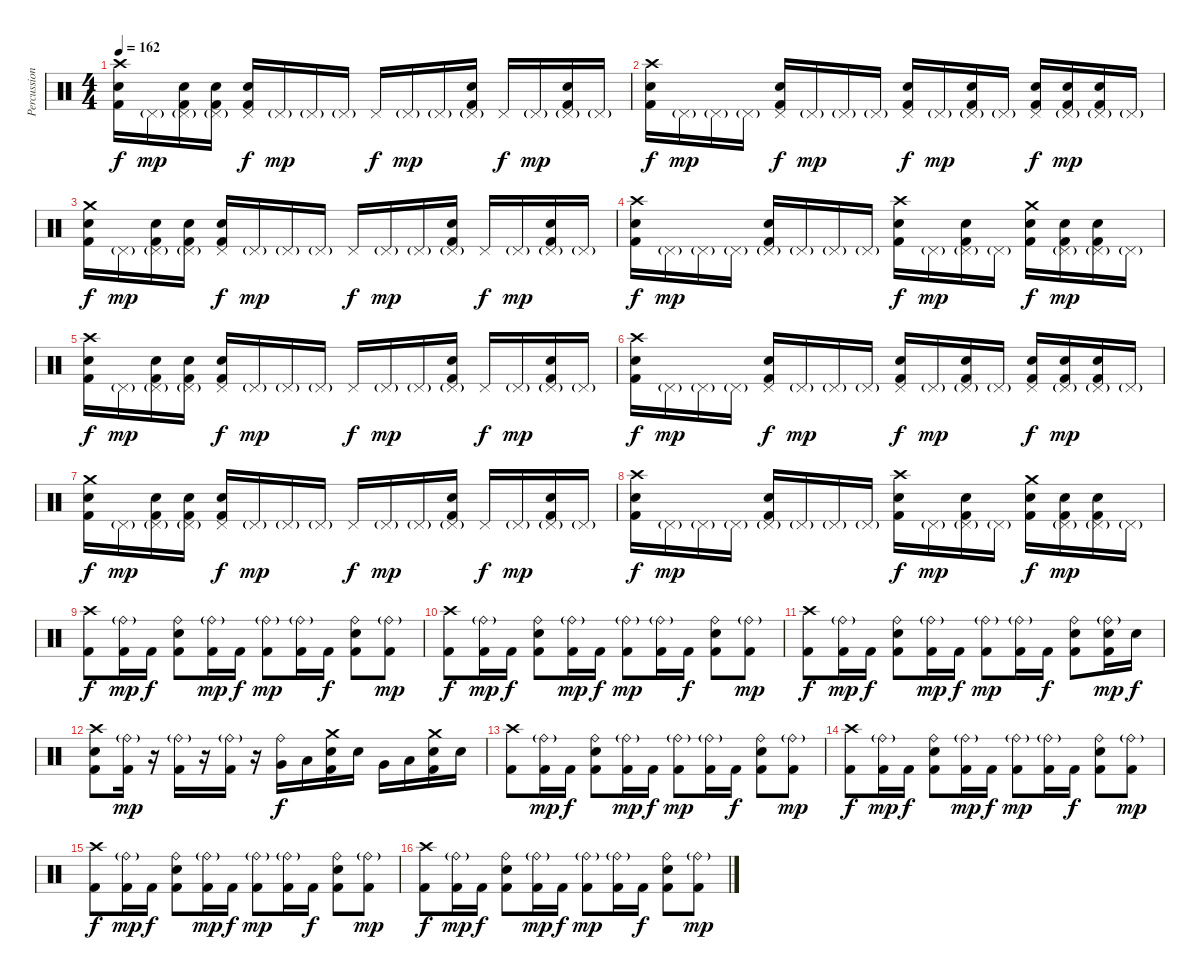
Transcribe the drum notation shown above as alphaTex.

\track ("Percussion" "Percussion") {instrument percussion}
\staff {score}
\articulation defaults
\ts (4 4)
\tempo 162
\clef neutral
\ks c
("Crash high (hit)" "Electric Snare (hit)" "Kick (hit) 2").16{dy f} "Pedal Hi-Hat (hit)"{g}.16{dy mp} ("Pedal Hi-Hat (hit)"{g} "Electric Snare (hit)" "Kick (hit) 2").16 ("Pedal Hi-Hat (hit)"{g} "Electric Snare (hit)" "Kick (hit) 2").16 ("Pedal Hi-Hat (hit)" "Electric Snare (hit)" "Kick (hit) 2").16{dy f} "Pedal Hi-Hat (hit)"{g}.16{dy mp} "Pedal Hi-Hat (hit)"{g}.16 "Pedal Hi-Hat (hit)"{g}.16 "Pedal Hi-Hat (hit)".16{dy f} "Pedal Hi-Hat (hit)"{g}.16{dy mp} "Pedal Hi-Hat (hit)"{g}.16 ("Pedal Hi-Hat (hit)"{g} "Electric Snare (hit)" "Kick (hit) 2").16 "Pedal Hi-Hat (hit)".16{dy f} "Pedal Hi-Hat (hit)"{g}.16{dy mp} ("Pedal Hi-Hat (hit)"{g} "Electric Snare (hit)" "Kick (hit) 2").16 "Pedal Hi-Hat (hit)"{g}.16 |
("Crash high (hit)" "Electric Snare (hit)" "Kick (hit) 2").16{dy f} "Pedal Hi-Hat (hit)"{g}.16{dy mp} "Pedal Hi-Hat (hit)"{g}.16 "Pedal Hi-Hat (hit)"{g}.16 ("Pedal Hi-Hat (hit)" "Electric Snare (hit)" "Kick (hit) 2").16{dy f} "Pedal Hi-Hat (hit)"{g}.16{dy mp} "Pedal Hi-Hat (hit)"{g}.16 "Pedal Hi-Hat (hit)"{g}.16 ("Pedal Hi-Hat (hit)" "Electric Snare (hit)" "Kick (hit) 2").16{dy f} "Pedal Hi-Hat (hit)"{g}.16{dy mp} ("Pedal Hi-Hat (hit)"{g} "Electric Snare (hit)" "Kick (hit) 2").16 "Pedal Hi-Hat (hit)"{g}.16 ("Pedal Hi-Hat (hit)" "Electric Snare (hit)" "Kick (hit) 2").16{dy f} ("Pedal Hi-Hat (hit)"{g} "Electric Snare (hit)" "Kick (hit) 2").16{dy mp} ("Pedal Hi-Hat (hit)"{g} "Electric Snare (hit)" "Kick (hit) 2").16 "Pedal Hi-Hat (hit)"{g}.16 |
("Crash medium (hit)" "Electric Snare (hit)" "Kick (hit) 2").16{dy f} "Pedal Hi-Hat (hit)"{g}.16{dy mp} ("Pedal Hi-Hat (hit)"{g} "Electric Snare (hit)" "Kick (hit) 2").16 ("Pedal Hi-Hat (hit)"{g} "Electric Snare (hit)" "Kick (hit) 2").16 ("Pedal Hi-Hat (hit)" "Electric Snare (hit)" "Kick (hit) 2").16{dy f} "Pedal Hi-Hat (hit)"{g}.16{dy mp} "Pedal Hi-Hat (hit)"{g}.16 "Pedal Hi-Hat (hit)"{g}.16 "Pedal Hi-Hat (hit)".16{dy f} "Pedal Hi-Hat (hit)"{g}.16{dy mp} "Pedal Hi-Hat (hit)"{g}.16 ("Pedal Hi-Hat (hit)"{g} "Electric Snare (hit)" "Kick (hit) 2").16 "Pedal Hi-Hat (hit)".16{dy f} "Pedal Hi-Hat (hit)"{g}.16{dy mp} ("Pedal Hi-Hat (hit)"{g} "Electric Snare (hit)" "Kick (hit) 2").16 "Pedal Hi-Hat (hit)"{g}.16 |
("Crash high (hit)" "Electric Snare (hit)" "Kick (hit) 2").16{dy f} "Pedal Hi-Hat (hit)"{g}.16{dy mp} "Pedal Hi-Hat (hit)"{g}.16 "Pedal Hi-Hat (hit)"{g}.16 ("Pedal Hi-Hat (hit)"{g} "Electric Snare (hit)" "Kick (hit) 2").16 "Pedal Hi-Hat (hit)"{g}.16 "Pedal Hi-Hat (hit)"{g}.16 "Pedal Hi-Hat (hit)"{g}.16 ("Crash high (hit)" "Electric Snare (hit)" "Kick (hit) 2").16{dy f} "Pedal Hi-Hat (hit)"{g}.16{dy mp} ("Pedal Hi-Hat (hit)"{g} "Electric Snare (hit)" "Kick (hit) 2").16 "Pedal Hi-Hat (hit)"{g}.16 ("Crash medium (hit)" "Electric Snare (hit)" "Kick (hit) 2").16{dy f} ("Pedal Hi-Hat (hit)"{g} "Electric Snare (hit)" "Kick (hit) 2").16{dy mp} ("Pedal Hi-Hat (hit)"{g} "Electric Snare (hit)" "Kick (hit) 2").16 "Pedal Hi-Hat (hit)"{g}.16 |
("Crash high (hit)" "Electric Snare (hit)" "Kick (hit) 2").16{dy f} "Pedal Hi-Hat (hit)"{g}.16{dy mp} ("Pedal Hi-Hat (hit)"{g} "Electric Snare (hit)" "Kick (hit) 2").16 ("Pedal Hi-Hat (hit)"{g} "Electric Snare (hit)" "Kick (hit) 2").16 ("Pedal Hi-Hat (hit)" "Electric Snare (hit)" "Kick (hit) 2").16{dy f} "Pedal Hi-Hat (hit)"{g}.16{dy mp} "Pedal Hi-Hat (hit)"{g}.16 "Pedal Hi-Hat (hit)"{g}.16 "Pedal Hi-Hat (hit)".16{dy f} "Pedal Hi-Hat (hit)"{g}.16{dy mp} "Pedal Hi-Hat (hit)"{g}.16 ("Pedal Hi-Hat (hit)"{g} "Electric Snare (hit)" "Kick (hit) 2").16 "Pedal Hi-Hat (hit)".16{dy f} "Pedal Hi-Hat (hit)"{g}.16{dy mp} ("Pedal Hi-Hat (hit)"{g} "Electric Snare (hit)" "Kick (hit) 2").16 "Pedal Hi-Hat (hit)"{g}.16 |
("Crash high (hit)" "Electric Snare (hit)" "Kick (hit) 2").16{dy f} "Pedal Hi-Hat (hit)"{g}.16{dy mp} "Pedal Hi-Hat (hit)"{g}.16 "Pedal Hi-Hat (hit)"{g}.16 ("Pedal Hi-Hat (hit)" "Electric Snare (hit)" "Kick (hit) 2").16{dy f} "Pedal Hi-Hat (hit)"{g}.16{dy mp} "Pedal Hi-Hat (hit)"{g}.16 "Pedal Hi-Hat (hit)"{g}.16 ("Pedal Hi-Hat (hit)" "Electric Snare (hit)" "Kick (hit) 2").16{dy f} "Pedal Hi-Hat (hit)"{g}.16{dy mp} ("Pedal Hi-Hat (hit)"{g} "Electric Snare (hit)" "Kick (hit) 2").16 "Pedal Hi-Hat (hit)"{g}.16 ("Pedal Hi-Hat (hit)" "Electric Snare (hit)" "Kick (hit) 2").16{dy f} ("Pedal Hi-Hat (hit)"{g} "Electric Snare (hit)" "Kick (hit) 2").16{dy mp} ("Pedal Hi-Hat (hit)"{g} "Electric Snare (hit)" "Kick (hit) 2").16 "Pedal Hi-Hat (hit)"{g}.16 |
("Crash medium (hit)" "Electric Snare (hit)" "Kick (hit) 2").16{dy f} "Pedal Hi-Hat (hit)"{g}.16{dy mp} ("Pedal Hi-Hat (hit)"{g} "Electric Snare (hit)" "Kick (hit) 2").16 ("Pedal Hi-Hat (hit)"{g} "Electric Snare (hit)" "Kick (hit) 2").16 ("Pedal Hi-Hat (hit)" "Electric Snare (hit)" "Kick (hit) 2").16{dy f} "Pedal Hi-Hat (hit)"{g}.16{dy mp} "Pedal Hi-Hat (hit)"{g}.16 "Pedal Hi-Hat (hit)"{g}.16 "Pedal Hi-Hat (hit)".16{dy f} "Pedal Hi-Hat (hit)"{g}.16{dy mp} "Pedal Hi-Hat (hit)"{g}.16 ("Pedal Hi-Hat (hit)"{g} "Electric Snare (hit)" "Kick (hit) 2").16 "Pedal Hi-Hat (hit)".16{dy f} "Pedal Hi-Hat (hit)"{g}.16{dy mp} ("Pedal Hi-Hat (hit)"{g} "Electric Snare (hit)" "Kick (hit) 2").16 "Pedal Hi-Hat (hit)"{g}.16 |
("Crash high (hit)" "Electric Snare (hit)" "Kick (hit) 2").16{dy f} "Pedal Hi-Hat (hit)"{g}.16{dy mp} "Pedal Hi-Hat (hit)"{g}.16 "Pedal Hi-Hat (hit)"{g}.16 ("Pedal Hi-Hat (hit)"{g} "Electric Snare (hit)" "Kick (hit) 2").16 "Pedal Hi-Hat (hit)"{g}.16 "Pedal Hi-Hat (hit)"{g}.16 "Pedal Hi-Hat (hit)"{g}.16 ("Crash high (hit)" "Electric Snare (hit)" "Kick (hit) 2").16{dy f} "Pedal Hi-Hat (hit)"{g}.16{dy mp} ("Pedal Hi-Hat (hit)"{g} "Electric Snare (hit)" "Kick (hit) 2").16 "Pedal Hi-Hat (hit)"{g}.16 ("Crash medium (hit)" "Electric Snare (hit)" "Kick (hit) 2").16{dy f} ("Pedal Hi-Hat (hit)"{g} "Electric Snare (hit)" "Kick (hit) 2").16{dy mp} ("Pedal Hi-Hat (hit)"{g} "Electric Snare (hit)" "Kick (hit) 2").16 "Pedal Hi-Hat (hit)"{g}.16 |
("Crash high (hit)" "Kick (hit) 2").8{dy f} ("Ride (bell)"{g} "Kick (hit) 2").16{dy mp} "Kick (hit) 2".16{dy f} ("Ride (bell)" "Electric Snare (hit)" "Kick (hit) 2").8 ("Ride (bell)"{g} "Kick (hit) 2").16{dy mp} "Kick (hit) 2".16{dy f} ("Ride (bell)"{g} "Kick (hit) 2").8{dy mp} ("Ride (bell)"{g} "Kick (hit) 2").16 "Kick (hit) 2".16{dy f} ("Ride (bell)" "Electric Snare (hit)" "Kick (hit) 2").8 ("Ride (bell)"{g} "Kick (hit) 2").8{dy mp} |
("Crash high (hit)" "Kick (hit) 2").8{dy f} ("Ride (bell)"{g} "Kick (hit) 2").16{dy mp} "Kick (hit) 2".16{dy f} ("Ride (bell)" "Electric Snare (hit)" "Kick (hit) 2").8 ("Ride (bell)"{g} "Kick (hit) 2").16{dy mp} "Kick (hit) 2".16{dy f} ("Ride (bell)"{g} "Kick (hit) 2").8{dy mp} ("Ride (bell)"{g} "Kick (hit) 2").16 "Kick (hit) 2".16{dy f} ("Ride (bell)" "Electric Snare (hit)" "Kick (hit) 2").8 ("Ride (bell)"{g} "Kick (hit) 2").8{dy mp} |
("Crash high (hit)" "Kick (hit) 2").8{dy f} ("Ride (bell)"{g} "Kick (hit) 2").16{dy mp} "Kick (hit) 2".16{dy f} ("Ride (bell)" "Electric Snare (hit)" "Kick (hit) 2").8 ("Ride (bell)"{g} "Kick (hit) 2").16{dy mp} "Kick (hit) 2".16{dy f} ("Ride (bell)"{g} "Kick (hit) 2").8{dy mp} ("Ride (bell)"{g} "Kick (hit) 2").16 "Kick (hit) 2".16{dy f} ("Ride (bell)" "Electric Snare (hit)" "Kick (hit) 2").8 ("Ride (bell)"{g} "Electric Snare (hit)" "Kick (hit) 2").16{dy mp} "Electric Snare (hit)".16{dy f} |
("Crash high (hit)" "Electric Snare (hit)" "Kick (hit) 2").8 ("Ride (bell)"{g} "Kick (hit) 2").16{dy mp} r.16 ("Ride (bell)"{g} "Kick (hit) 2").16 r.16 ("Ride (bell)"{g} "Kick (hit) 2").16 r.16 ("Ride (bell)" "Very Low Tom (hit)").16{dy f} "Low Floor Tom (hit)".16 ("Crash medium (hit)" "Electric Snare (hit)" "Kick (hit) 2").16 "Electric Snare (hit)".16 "Very Low Tom (hit)".16 "Low Floor Tom (hit)".16 ("Crash medium (hit)" "Electric Snare (hit)" "Kick (hit) 2").16 "Electric Snare (hit)".16 |
("Crash high (hit)" "Kick (hit) 2").8 ("Ride (bell)"{g} "Kick (hit) 2").16{dy mp} "Kick (hit) 2".16{dy f} ("Ride (bell)" "Electric Snare (hit)" "Kick (hit) 2").8 ("Ride (bell)"{g} "Kick (hit) 2").16{dy mp} "Kick (hit) 2".16{dy f} ("Ride (bell)"{g} "Kick (hit) 2").8{dy mp} ("Ride (bell)"{g} "Kick (hit) 2").16 "Kick (hit) 2".16{dy f} ("Ride (bell)" "Electric Snare (hit)" "Kick (hit) 2").8 ("Ride (bell)"{g} "Kick (hit) 2").8{dy mp} |
("Crash high (hit)" "Kick (hit) 2").8{dy f} ("Ride (bell)"{g} "Kick (hit) 2").16{dy mp} "Kick (hit) 2".16{dy f} ("Ride (bell)" "Electric Snare (hit)" "Kick (hit) 2").8 ("Ride (bell)"{g} "Kick (hit) 2").16{dy mp} "Kick (hit) 2".16{dy f} ("Ride (bell)"{g} "Kick (hit) 2").8{dy mp} ("Ride (bell)"{g} "Kick (hit) 2").16 "Kick (hit) 2".16{dy f} ("Ride (bell)" "Electric Snare (hit)" "Kick (hit) 2").8 ("Ride (bell)"{g} "Kick (hit) 2").8{dy mp} |
("Crash high (hit)" "Kick (hit) 2").8{dy f} ("Ride (bell)"{g} "Kick (hit) 2").16{dy mp} "Kick (hit) 2".16{dy f} ("Ride (bell)" "Electric Snare (hit)" "Kick (hit) 2").8 ("Ride (bell)"{g} "Kick (hit) 2").16{dy mp} "Kick (hit) 2".16{dy f} ("Ride (bell)"{g} "Kick (hit) 2").8{dy mp} ("Ride (bell)"{g} "Kick (hit) 2").16 "Kick (hit) 2".16{dy f} ("Ride (bell)" "Electric Snare (hit)" "Kick (hit) 2").8 ("Ride (bell)"{g} "Kick (hit) 2").8{dy mp} |
("Crash high (hit)" "Kick (hit) 2").8{dy f} ("Ride (bell)"{g} "Kick (hit) 2").16{dy mp} "Kick (hit) 2".16{dy f} ("Ride (bell)" "Electric Snare (hit)" "Kick (hit) 2").8 ("Ride (bell)"{g} "Kick (hit) 2").16{dy mp} "Kick (hit) 2".16{dy f} ("Ride (bell)"{g} "Kick (hit) 2").8{dy mp} ("Ride (bell)"{g} "Kick (hit) 2").16 "Kick (hit) 2".16{dy f} ("Ride (bell)" "Electric Snare (hit)" "Kick (hit) 2").8 ("Ride (bell)"{g} "Kick (hit) 2").8{dy mp}
